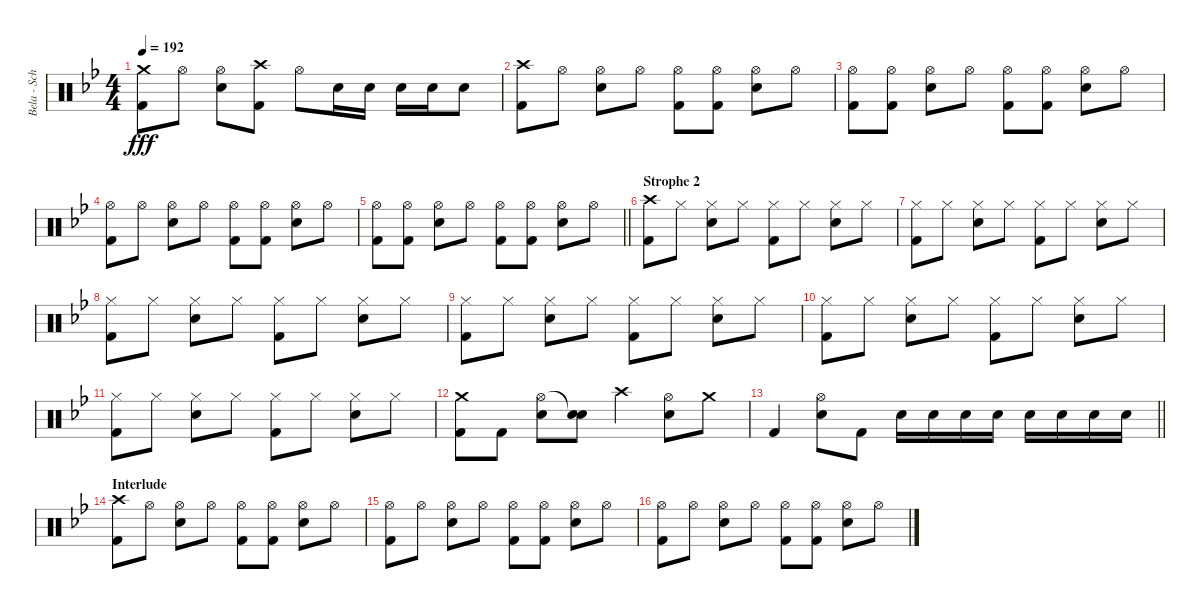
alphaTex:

\track ("Bela - Schlagzeug" "Bela - Sch") {instrument percussion}
\staff {score}
\articulation defaults
\ts (4 4)
\tempo 192
\clef neutral
\ks bb
("Crash medium (hit)" "Kick (hit) 2").8{dy fff} "Hi-Hat (open)".8 ("Hi-Hat (open)" "Snare (hit) 2").8 ("Crash high (hit)" "Kick (hit) 2").8 "Hi-Hat (open)".8 "Snare (hit) 2".16 "Snare (hit) 2".16 "Snare (hit) 2".16 "Snare (hit) 2".16 "Snare (hit) 2".8 |
("Crash high (hit)" "Kick (hit) 2").8 "Hi-Hat (open)".8 ("Hi-Hat (open)" "Snare (hit) 2").8 "Hi-Hat (open)".8 ("Hi-Hat (open)" "Kick (hit) 2").8 ("Hi-Hat (open)" "Kick (hit) 2").8 ("Hi-Hat (open)" "Snare (hit) 2").8 "Hi-Hat (open)".8 |
("Hi-Hat (open)" "Kick (hit) 2").8 ("Hi-Hat (open)" "Kick (hit) 2").8 ("Hi-Hat (open)" "Snare (hit) 2").8 "Hi-Hat (open)".8 ("Hi-Hat (open)" "Kick (hit) 2").8 ("Hi-Hat (open)" "Kick (hit) 2").8 ("Hi-Hat (open)" "Snare (hit) 2").8 "Hi-Hat (open)".8 |
("Hi-Hat (open)" "Kick (hit) 2").8 "Hi-Hat (open)".8 ("Hi-Hat (open)" "Snare (hit) 2").8 "Hi-Hat (open)".8 ("Hi-Hat (open)" "Kick (hit) 2").8 ("Hi-Hat (open)" "Kick (hit) 2").8 ("Hi-Hat (open)" "Snare (hit) 2").8 "Hi-Hat (open)".8 |
\barLineRight lightlight
("Hi-Hat (open)" "Kick (hit) 2").8 ("Hi-Hat (open)" "Kick (hit) 2").8 ("Hi-Hat (open)" "Snare (hit) 2").8 "Hi-Hat (open)".8 ("Hi-Hat (open)" "Kick (hit) 2").8 ("Hi-Hat (open)" "Kick (hit) 2").8 ("Hi-Hat (open)" "Snare (hit) 2").8 "Hi-Hat (open)".8 |
\section ("" "Strophe 2")
("Crash high (hit)" "Kick (hit) 2").8 "Hi-Hat (closed)".8 ("Hi-Hat (closed)" "Snare (hit) 2").8 "Hi-Hat (closed)".8 ("Hi-Hat (closed)" "Kick (hit) 2").8 "Hi-Hat (closed)".8 ("Hi-Hat (closed)" "Snare (hit) 2").8 "Hi-Hat (closed)".8 |
("Hi-Hat (closed)" "Kick (hit) 2").8 "Hi-Hat (closed)".8 ("Hi-Hat (closed)" "Snare (hit) 2").8 "Hi-Hat (closed)".8 ("Hi-Hat (closed)" "Kick (hit) 2").8 "Hi-Hat (closed)".8 ("Hi-Hat (closed)" "Snare (hit) 2").8 "Hi-Hat (closed)".8 |
("Hi-Hat (closed)" "Kick (hit) 2").8 "Hi-Hat (closed)".8 ("Hi-Hat (closed)" "Snare (hit) 2").8 "Hi-Hat (closed)".8 ("Hi-Hat (closed)" "Kick (hit) 2").8 "Hi-Hat (closed)".8 ("Hi-Hat (closed)" "Snare (hit) 2").8 "Hi-Hat (closed)".8 |
("Hi-Hat (closed)" "Kick (hit) 2").8 "Hi-Hat (closed)".8 ("Hi-Hat (closed)" "Snare (hit) 2").8 "Hi-Hat (closed)".8 ("Hi-Hat (closed)" "Kick (hit) 2").8 "Hi-Hat (closed)".8 ("Hi-Hat (closed)" "Snare (hit) 2").8 "Hi-Hat (closed)".8 |
("Hi-Hat (closed)" "Kick (hit) 2").8 "Hi-Hat (closed)".8 ("Hi-Hat (closed)" "Snare (hit) 2").8 "Hi-Hat (closed)".8 ("Hi-Hat (closed)" "Kick (hit) 2").8 "Hi-Hat (closed)".8 ("Hi-Hat (closed)" "Snare (hit) 2").8 "Hi-Hat (closed)".8 |
("Hi-Hat (closed)" "Kick (hit) 2").8 "Hi-Hat (closed)".8 ("Hi-Hat (closed)" "Snare (hit) 2").8 "Hi-Hat (closed)".8 ("Hi-Hat (closed)" "Kick (hit) 2").8 "Hi-Hat (closed)".8 ("Hi-Hat (closed)" "Snare (hit) 2").8 "Hi-Hat (closed)".8 |
("Crash medium (hit)" "Kick (hit) 2").8 "Kick (hit) 2".8 ("Hi-Hat (open)" "Snare (hit) 2").8 ("Snare (hit)"{t} "Snare (hit) 2").8 "Crash high (hit)".4 ("Hi-Hat (open)" "Snare (hit) 2").8 "Crash medium (hit)".8 |
\barLineRight lightlight "Kick (hit) 2".4
("Hi-Hat (open)" "Snare (hit) 2").8 "Kick (hit) 2".8 "Snare (hit) 2".16 "Snare (hit) 2".16 "Snare (hit) 2".16 "Snare (hit) 2".16 "Snare (hit) 2".16 "Snare (hit) 2".16 "Snare (hit) 2".16 "Snare (hit) 2".16 |
\section ("" "Interlude")
("Crash high (hit)" "Kick (hit) 2").8 "Hi-Hat (open)".8 ("Hi-Hat (open)" "Snare (hit) 2").8 "Hi-Hat (open)".8 ("Hi-Hat (open)" "Kick (hit) 2").8 ("Hi-Hat (open)" "Kick (hit) 2").8 ("Hi-Hat (open)" "Snare (hit) 2").8 "Hi-Hat (open)".8 |
("Hi-Hat (open)" "Kick (hit) 2").8 "Hi-Hat (open)".8 ("Hi-Hat (open)" "Snare (hit) 2").8 "Hi-Hat (open)".8 ("Hi-Hat (open)" "Kick (hit) 2").8 ("Hi-Hat (open)" "Kick (hit) 2").8 ("Hi-Hat (open)" "Snare (hit) 2").8 "Hi-Hat (open)".8 |
("Hi-Hat (open)" "Kick (hit) 2").8 "Hi-Hat (open)".8 ("Hi-Hat (open)" "Snare (hit) 2").8 "Hi-Hat (open)".8 ("Hi-Hat (open)" "Kick (hit) 2").8 ("Hi-Hat (open)" "Kick (hit) 2").8 ("Hi-Hat (open)" "Snare (hit) 2").8 "Hi-Hat (open)".8
